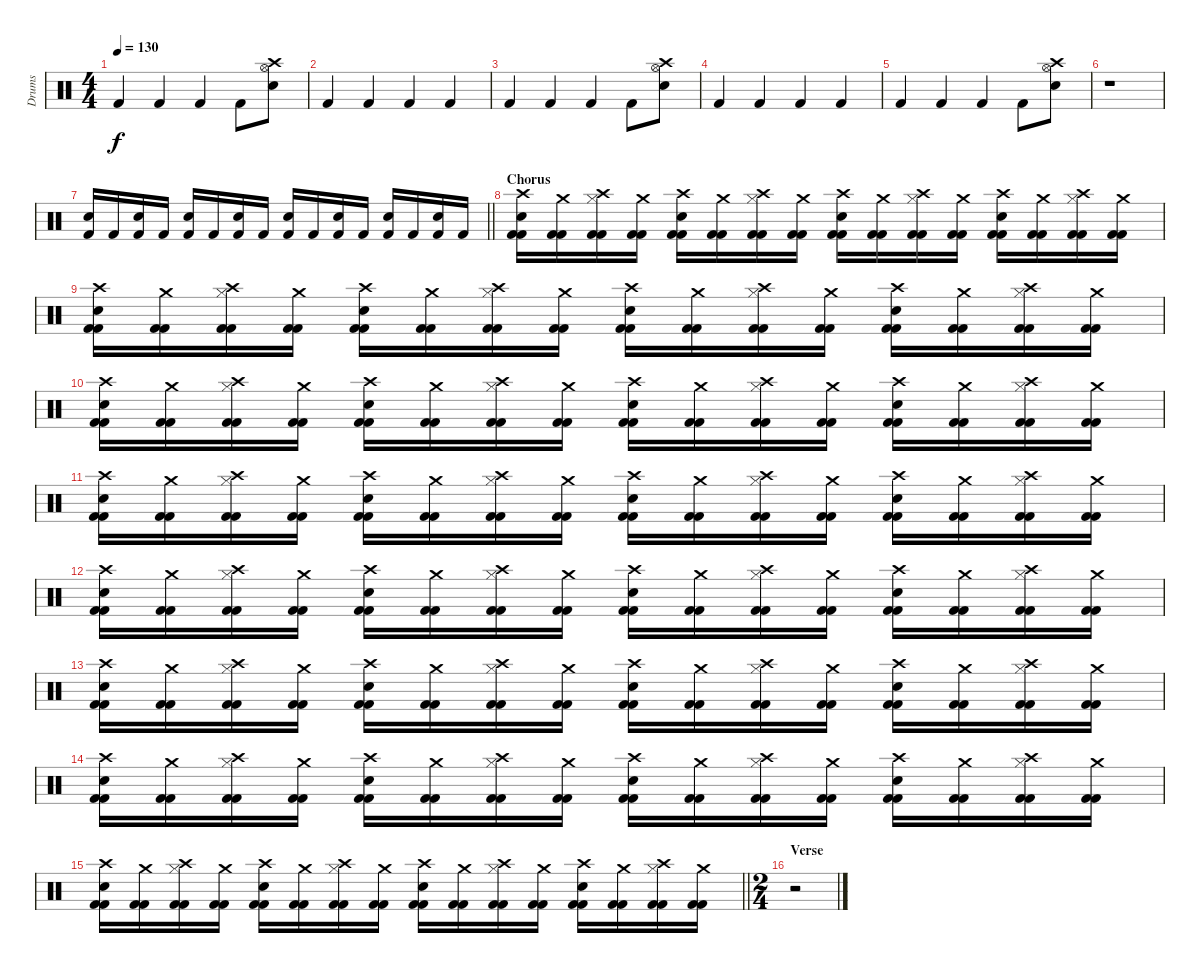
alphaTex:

\track ("Drums" "Drums") {instrument percussion}
\staff
\articulation defaults
\ts (4 4)
\tempo 130
\clef neutral
\ks c "Kick (hit) 2".4{dy f} "Kick (hit) 2".4 "Kick (hit) 2".4 "Kick (hit) 2".8
("Crash high (hit)" "Snare (hit) 2" "Hi-Hat (open)").8 |
"Kick (hit) 2".4 "Kick (hit) 2".4 "Kick (hit) 2".4 "Kick (hit) 2".4 |
"Kick (hit) 2".4 "Kick (hit) 2".4 "Kick (hit) 2".4 "Kick (hit) 2".8 ("Crash high (hit)" "Snare (hit) 2" "Hi-Hat (open)").8 |
"Kick (hit) 2".4 "Kick (hit) 2".4 "Kick (hit) 2".4 "Kick (hit) 2".4 |
"Kick (hit) 2".4 "Kick (hit) 2".4 "Kick (hit) 2".4 "Kick (hit) 2".8 ("Crash high (hit)" "Snare (hit) 2" "Hi-Hat (open)").8 |
r.1 |
\barLineRight lightlight
("Snare (hit) 2" "Kick (hit) 2").16 "Kick (hit) 2".16 ("Snare (hit) 2" "Kick (hit) 2").16 "Kick (hit) 2".16 ("Snare (hit) 2" "Kick (hit) 2").16 "Kick (hit) 2".16 ("Snare (hit) 2" "Kick (hit) 2").16 "Kick (hit) 2".16 ("Snare (hit) 2" "Kick (hit) 2").16 "Kick (hit) 2".16 ("Snare (hit) 2" "Kick (hit) 2").16 "Kick (hit) 2".16 ("Snare (hit) 2" "Kick (hit) 2").16 "Kick (hit) 2".16 ("Snare (hit) 2" "Kick (hit) 2").16 "Kick (hit) 2".16 |
\section ("" "Chorus")
("Kick (hit) 2" "Crash high (hit)" "Electric Snare (hit)" "Kick (hit) 2").16 ("Kick (hit) 2" "Crash medium (hit)" "Kick (hit) 2").16 ("Kick (hit) 2" "Crash high (hit)" "Hi-Hat (closed)" "Kick (hit) 2").16 ("Kick (hit) 2" "Crash medium (hit)" "Kick (hit) 2").16 ("Kick (hit) 2" "Crash high (hit)" "Electric Snare (hit)" "Kick (hit) 2").16 ("Kick (hit) 2" "Crash medium (hit)" "Kick (hit) 2").16 ("Kick (hit) 2" "Crash high (hit)" "Hi-Hat (closed)" "Kick (hit) 2").16 ("Kick (hit) 2" "Crash medium (hit)" "Kick (hit) 2").16 ("Kick (hit) 2" "Crash high (hit)" "Electric Snare (hit)" "Kick (hit) 2").16 ("Kick (hit) 2" "Crash medium (hit)" "Kick (hit) 2").16 ("Kick (hit) 2" "Crash high (hit)" "Hi-Hat (closed)" "Kick (hit) 2").16 ("Kick (hit) 2" "Crash medium (hit)" "Kick (hit) 2").16 ("Kick (hit) 2" "Crash high (hit)" "Electric Snare (hit)" "Kick (hit) 2").16 ("Kick (hit) 2" "Crash medium (hit)" "Kick (hit) 2").16 ("Kick (hit) 2" "Crash high (hit)" "Hi-Hat (closed)" "Kick (hit) 2").16 ("Kick (hit) 2" "Crash medium (hit)" "Kick (hit) 2").16 |
("Kick (hit) 2" "Crash high (hit)" "Electric Snare (hit)" "Kick (hit) 2").16 ("Kick (hit) 2" "Crash medium (hit)" "Kick (hit) 2").16 ("Kick (hit) 2" "Crash high (hit)" "Hi-Hat (closed)" "Kick (hit) 2").16 ("Kick (hit) 2" "Crash medium (hit)" "Kick (hit) 2").16 ("Kick (hit) 2" "Crash high (hit)" "Electric Snare (hit)" "Kick (hit) 2").16 ("Kick (hit) 2" "Crash medium (hit)" "Kick (hit) 2").16 ("Kick (hit) 2" "Crash high (hit)" "Hi-Hat (closed)" "Kick (hit) 2").16 ("Kick (hit) 2" "Crash medium (hit)" "Kick (hit) 2").16 ("Kick (hit) 2" "Crash high (hit)" "Electric Snare (hit)" "Kick (hit) 2").16 ("Kick (hit) 2" "Crash medium (hit)" "Kick (hit) 2").16 ("Kick (hit) 2" "Crash high (hit)" "Hi-Hat (closed)" "Kick (hit) 2").16 ("Kick (hit) 2" "Crash medium (hit)" "Kick (hit) 2").16 ("Kick (hit) 2" "Crash high (hit)" "Electric Snare (hit)" "Kick (hit) 2").16 ("Kick (hit) 2" "Crash medium (hit)" "Kick (hit) 2").16 ("Kick (hit) 2" "Crash high (hit)" "Hi-Hat (closed)" "Kick (hit) 2").16 ("Kick (hit) 2" "Crash medium (hit)" "Kick (hit) 2").16 |
("Kick (hit) 2" "Crash high (hit)" "Electric Snare (hit)" "Kick (hit) 2").16 ("Kick (hit) 2" "Crash medium (hit)" "Kick (hit) 2").16 ("Kick (hit) 2" "Crash high (hit)" "Hi-Hat (closed)" "Kick (hit) 2").16 ("Kick (hit) 2" "Crash medium (hit)" "Kick (hit) 2").16 ("Kick (hit) 2" "Crash high (hit)" "Electric Snare (hit)" "Kick (hit) 2").16 ("Kick (hit) 2" "Crash medium (hit)" "Kick (hit) 2").16 ("Kick (hit) 2" "Crash high (hit)" "Hi-Hat (closed)" "Kick (hit) 2").16 ("Kick (hit) 2" "Crash medium (hit)" "Kick (hit) 2").16 ("Kick (hit) 2" "Crash high (hit)" "Electric Snare (hit)" "Kick (hit) 2").16 ("Kick (hit) 2" "Crash medium (hit)" "Kick (hit) 2").16 ("Kick (hit) 2" "Crash high (hit)" "Hi-Hat (closed)" "Kick (hit) 2").16 ("Kick (hit) 2" "Crash medium (hit)" "Kick (hit) 2").16 ("Kick (hit) 2" "Crash high (hit)" "Electric Snare (hit)" "Kick (hit) 2").16 ("Kick (hit) 2" "Crash medium (hit)" "Kick (hit) 2").16 ("Kick (hit) 2" "Crash high (hit)" "Hi-Hat (closed)" "Kick (hit) 2").16 ("Kick (hit) 2" "Crash medium (hit)" "Kick (hit) 2").16 |
("Kick (hit) 2" "Crash high (hit)" "Electric Snare (hit)" "Kick (hit) 2").16 ("Kick (hit) 2" "Crash medium (hit)" "Kick (hit) 2").16 ("Kick (hit) 2" "Crash high (hit)" "Hi-Hat (closed)" "Kick (hit) 2").16 ("Kick (hit) 2" "Crash medium (hit)" "Kick (hit) 2").16 ("Kick (hit) 2" "Crash high (hit)" "Electric Snare (hit)" "Kick (hit) 2").16 ("Kick (hit) 2" "Crash medium (hit)" "Kick (hit) 2").16 ("Kick (hit) 2" "Crash high (hit)" "Hi-Hat (closed)" "Kick (hit) 2").16 ("Kick (hit) 2" "Crash medium (hit)" "Kick (hit) 2").16 ("Kick (hit) 2" "Crash high (hit)" "Electric Snare (hit)" "Kick (hit) 2").16 ("Kick (hit) 2" "Crash medium (hit)" "Kick (hit) 2").16 ("Kick (hit) 2" "Crash high (hit)" "Hi-Hat (closed)" "Kick (hit) 2").16 ("Kick (hit) 2" "Crash medium (hit)" "Kick (hit) 2").16 ("Kick (hit) 2" "Crash high (hit)" "Electric Snare (hit)" "Kick (hit) 2").16 ("Kick (hit) 2" "Crash medium (hit)" "Kick (hit) 2").16 ("Kick (hit) 2" "Crash high (hit)" "Hi-Hat (closed)" "Kick (hit) 2").16 ("Kick (hit) 2" "Crash medium (hit)" "Kick (hit) 2").16 |
("Kick (hit) 2" "Crash high (hit)" "Electric Snare (hit)" "Kick (hit) 2").16 ("Kick (hit) 2" "Crash medium (hit)" "Kick (hit) 2").16 ("Kick (hit) 2" "Crash high (hit)" "Hi-Hat (closed)" "Kick (hit) 2").16 ("Kick (hit) 2" "Crash medium (hit)" "Kick (hit) 2").16 ("Kick (hit) 2" "Crash high (hit)" "Electric Snare (hit)" "Kick (hit) 2").16 ("Kick (hit) 2" "Crash medium (hit)" "Kick (hit) 2").16 ("Kick (hit) 2" "Crash high (hit)" "Hi-Hat (closed)" "Kick (hit) 2").16 ("Kick (hit) 2" "Crash medium (hit)" "Kick (hit) 2").16 ("Kick (hit) 2" "Crash high (hit)" "Electric Snare (hit)" "Kick (hit) 2").16 ("Kick (hit) 2" "Crash medium (hit)" "Kick (hit) 2").16 ("Kick (hit) 2" "Crash high (hit)" "Hi-Hat (closed)" "Kick (hit) 2").16 ("Kick (hit) 2" "Crash medium (hit)" "Kick (hit) 2").16 ("Kick (hit) 2" "Crash high (hit)" "Electric Snare (hit)" "Kick (hit) 2").16 ("Kick (hit) 2" "Crash medium (hit)" "Kick (hit) 2").16 ("Kick (hit) 2" "Crash high (hit)" "Hi-Hat (closed)" "Kick (hit) 2").16 ("Kick (hit) 2" "Crash medium (hit)" "Kick (hit) 2").16 |
("Kick (hit) 2" "Crash high (hit)" "Electric Snare (hit)" "Kick (hit) 2").16 ("Kick (hit) 2" "Crash medium (hit)" "Kick (hit) 2").16 ("Kick (hit) 2" "Crash high (hit)" "Hi-Hat (closed)" "Kick (hit) 2").16 ("Kick (hit) 2" "Crash medium (hit)" "Kick (hit) 2").16 ("Kick (hit) 2" "Crash high (hit)" "Electric Snare (hit)" "Kick (hit) 2").16 ("Kick (hit) 2" "Crash medium (hit)" "Kick (hit) 2").16 ("Kick (hit) 2" "Crash high (hit)" "Hi-Hat (closed)" "Kick (hit) 2").16 ("Kick (hit) 2" "Crash medium (hit)" "Kick (hit) 2").16 ("Kick (hit) 2" "Crash high (hit)" "Electric Snare (hit)" "Kick (hit) 2").16 ("Kick (hit) 2" "Crash medium (hit)" "Kick (hit) 2").16 ("Kick (hit) 2" "Crash high (hit)" "Hi-Hat (closed)" "Kick (hit) 2").16 ("Kick (hit) 2" "Crash medium (hit)" "Kick (hit) 2").16 ("Kick (hit) 2" "Crash high (hit)" "Electric Snare (hit)" "Kick (hit) 2").16 ("Kick (hit) 2" "Crash medium (hit)" "Kick (hit) 2").16 ("Kick (hit) 2" "Crash high (hit)" "Hi-Hat (closed)" "Kick (hit) 2").16 ("Kick (hit) 2" "Crash medium (hit)" "Kick (hit) 2").16 |
("Kick (hit) 2" "Crash high (hit)" "Electric Snare (hit)" "Kick (hit) 2").16 ("Kick (hit) 2" "Crash medium (hit)" "Kick (hit) 2").16 ("Kick (hit) 2" "Crash high (hit)" "Hi-Hat (closed)" "Kick (hit) 2").16 ("Kick (hit) 2" "Crash medium (hit)" "Kick (hit) 2").16 ("Kick (hit) 2" "Crash high (hit)" "Electric Snare (hit)" "Kick (hit) 2").16 ("Kick (hit) 2" "Crash medium (hit)" "Kick (hit) 2").16 ("Kick (hit) 2" "Crash high (hit)" "Hi-Hat (closed)" "Kick (hit) 2").16 ("Kick (hit) 2" "Crash medium (hit)" "Kick (hit) 2").16 ("Kick (hit) 2" "Crash high (hit)" "Electric Snare (hit)" "Kick (hit) 2").16 ("Kick (hit) 2" "Crash medium (hit)" "Kick (hit) 2").16 ("Kick (hit) 2" "Crash high (hit)" "Hi-Hat (closed)" "Kick (hit) 2").16 ("Kick (hit) 2" "Crash medium (hit)" "Kick (hit) 2").16 ("Kick (hit) 2" "Crash high (hit)" "Electric Snare (hit)" "Kick (hit) 2").16 ("Kick (hit) 2" "Crash medium (hit)" "Kick (hit) 2").16 ("Kick (hit) 2" "Crash high (hit)" "Hi-Hat (closed)" "Kick (hit) 2").16 ("Kick (hit) 2" "Crash medium (hit)" "Kick (hit) 2").16 |
\barLineRight lightlight
("Kick (hit) 2" "Crash high (hit)" "Electric Snare (hit)" "Kick (hit) 2").16 ("Kick (hit) 2" "Crash medium (hit)" "Kick (hit) 2").16 ("Kick (hit) 2" "Crash high (hit)" "Hi-Hat (closed)" "Kick (hit) 2").16 ("Kick (hit) 2" "Crash medium (hit)" "Kick (hit) 2").16 ("Kick (hit) 2" "Crash high (hit)" "Electric Snare (hit)" "Kick (hit) 2").16 ("Kick (hit) 2" "Crash medium (hit)" "Kick (hit) 2").16 ("Kick (hit) 2" "Crash high (hit)" "Hi-Hat (closed)" "Kick (hit) 2").16 ("Kick (hit) 2" "Crash medium (hit)" "Kick (hit) 2").16 ("Kick (hit) 2" "Crash high (hit)" "Electric Snare (hit)" "Kick (hit) 2").16 ("Kick (hit) 2" "Crash medium (hit)" "Kick (hit) 2").16 ("Kick (hit) 2" "Crash high (hit)" "Hi-Hat (closed)" "Kick (hit) 2").16 ("Kick (hit) 2" "Crash medium (hit)" "Kick (hit) 2").16 ("Kick (hit) 2" "Crash high (hit)" "Electric Snare (hit)" "Kick (hit) 2").16 ("Kick (hit) 2" "Crash medium (hit)" "Kick (hit) 2").16 ("Kick (hit) 2" "Crash high (hit)" "Hi-Hat (closed)" "Kick (hit) 2").16 ("Kick (hit) 2" "Crash medium (hit)" "Kick (hit) 2").16 |
\ts (2 4)
\section ("" "Verse")
r.2
